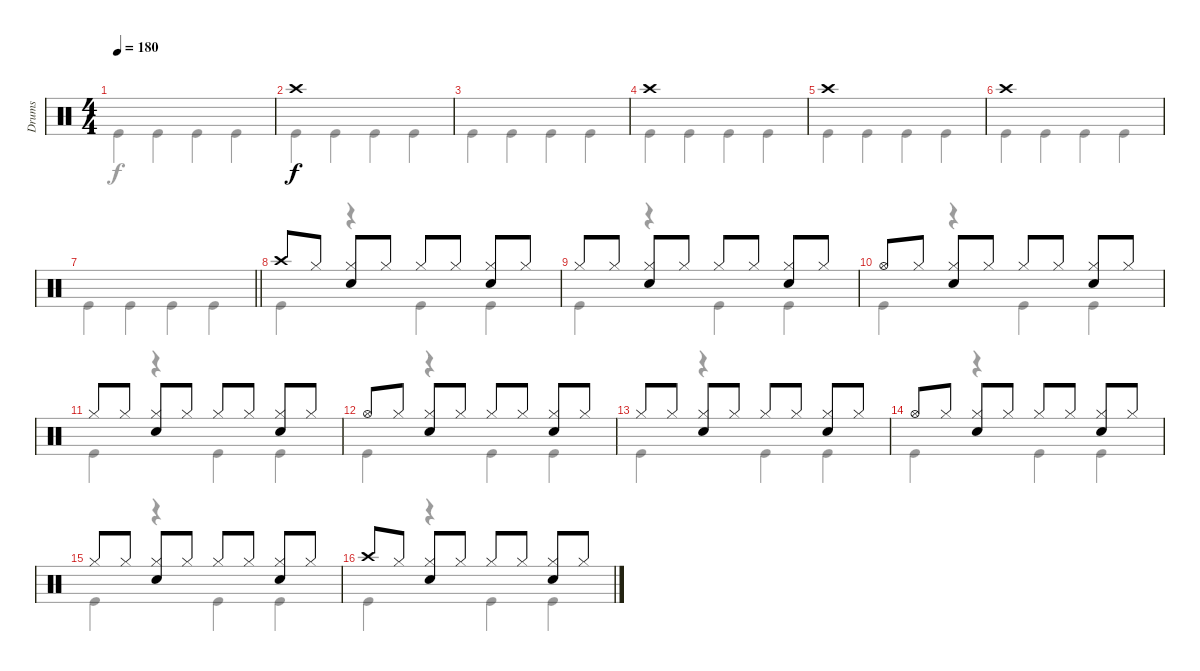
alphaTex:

\track ("Drums" "Drums") {instrument percussion}
\staff {score}
\articulation defaults
\voice
\ts (4 4)
\tempo 180
\clef neutral
\ks c
|
"Crash high (hit)".1 |
|
"Crash high (hit)".1 |
"Crash high (hit)".1 |
"Crash high (hit)".1 |
\barLineRight lightlight
|
"Crash high (hit)".8 "Hi-Hat (closed)".8 ("Hi-Hat (closed)" "Snare (hit) 2").8 "Hi-Hat (closed)".8 "Hi-Hat (closed)".8 "Hi-Hat (closed)".8 ("Hi-Hat (closed)" "Snare (hit) 2").8 "Hi-Hat (closed)".8 |
"Hi-Hat (closed)".8 "Hi-Hat (closed)".8 ("Hi-Hat (closed)" "Snare (hit) 2").8 "Hi-Hat (closed)".8 "Hi-Hat (closed)".8 "Hi-Hat (closed)".8 ("Hi-Hat (closed)" "Snare (hit) 2").8 "Hi-Hat (closed)".8 |
"Hi-Hat (open)".8 "Hi-Hat (closed)".8 ("Hi-Hat (closed)" "Snare (hit) 2").8 "Hi-Hat (closed)".8 "Hi-Hat (closed)".8 "Hi-Hat (closed)".8 ("Hi-Hat (closed)" "Snare (hit) 2").8 "Hi-Hat (closed)".8 |
"Hi-Hat (closed)".8 "Hi-Hat (closed)".8 ("Hi-Hat (closed)" "Snare (hit) 2").8 "Hi-Hat (closed)".8 "Hi-Hat (closed)".8 "Hi-Hat (closed)".8 ("Hi-Hat (closed)" "Snare (hit) 2").8 "Hi-Hat (closed)".8 |
"Hi-Hat (open)".8 "Hi-Hat (closed)".8 ("Hi-Hat (closed)" "Snare (hit) 2").8 "Hi-Hat (closed)".8 "Hi-Hat (closed)".8 "Hi-Hat (closed)".8 ("Hi-Hat (closed)" "Snare (hit) 2").8 "Hi-Hat (closed)".8 |
"Hi-Hat (closed)".8 "Hi-Hat (closed)".8 ("Hi-Hat (closed)" "Snare (hit) 2").8 "Hi-Hat (closed)".8 "Hi-Hat (closed)".8 "Hi-Hat (closed)".8 ("Hi-Hat (closed)" "Snare (hit) 2").8 "Hi-Hat (closed)".8 |
"Hi-Hat (open)".8 "Hi-Hat (closed)".8 ("Hi-Hat (closed)" "Snare (hit) 2").8 "Hi-Hat (closed)".8 "Hi-Hat (closed)".8 "Hi-Hat (closed)".8 ("Hi-Hat (closed)" "Snare (hit) 2").8 "Hi-Hat (closed)".8 |
"Hi-Hat (closed)".8 "Hi-Hat (closed)".8 ("Hi-Hat (closed)" "Snare (hit) 2").8 "Hi-Hat (closed)".8 "Hi-Hat (closed)".8 "Hi-Hat (closed)".8 ("Hi-Hat (closed)" "Snare (hit) 2").8 "Hi-Hat (closed)".8 |
"Crash high (hit)".8 "Hi-Hat (closed)".8 ("Hi-Hat (closed)" "Snare (hit) 2").8 "Hi-Hat (closed)".8 "Hi-Hat (closed)".8 "Hi-Hat (closed)".8 ("Hi-Hat (closed)" "Snare (hit) 2").8 "Hi-Hat (closed)".8
\voice
\clef neutral
\ottava regular
\simile none
\ks c "Kick (hit)".4{dy f} "Kick (hit)".4 "Kick (hit)".4 "Kick (hit)".4
|
"Kick (hit)".4 "Kick (hit)".4 "Kick (hit)".4 "Kick (hit)".4 |
"Kick (hit)".4 "Kick (hit)".4 "Kick (hit)".4 "Kick (hit)".4 |
"Kick (hit)".4 "Kick (hit)".4 "Kick (hit)".4 "Kick (hit)".4 |
"Kick (hit)".4 "Kick (hit)".4 "Kick (hit)".4 "Kick (hit)".4 |
"Kick (hit)".4 "Kick (hit)".4 "Kick (hit)".4 "Kick (hit)".4 |
\barLineRight lightlight "Kick (hit)".4 "Kick (hit)".4 "Kick (hit)".4 "Kick (hit)".4
|
"Kick (hit)".4 r.4 "Kick (hit)".4 "Kick (hit)".4 |
"Kick (hit)".4 r.4 "Kick (hit)".4 "Kick (hit)".4 |
"Kick (hit)".4 r.4 "Kick (hit)".4 "Kick (hit)".4 |
"Kick (hit)".4 r.4 "Kick (hit)".4 "Kick (hit)".4 |
"Kick (hit)".4 r.4 "Kick (hit)".4 "Kick (hit)".4 |
"Kick (hit)".4 r.4 "Kick (hit)".4 "Kick (hit)".4 |
"Kick (hit)".4 r.4 "Kick (hit)".4 "Kick (hit)".4 |
"Kick (hit)".4 r.4 "Kick (hit)".4 "Kick (hit)".4 |
"Kick (hit)".4 r.4 "Kick (hit)".4 "Kick (hit)".4
